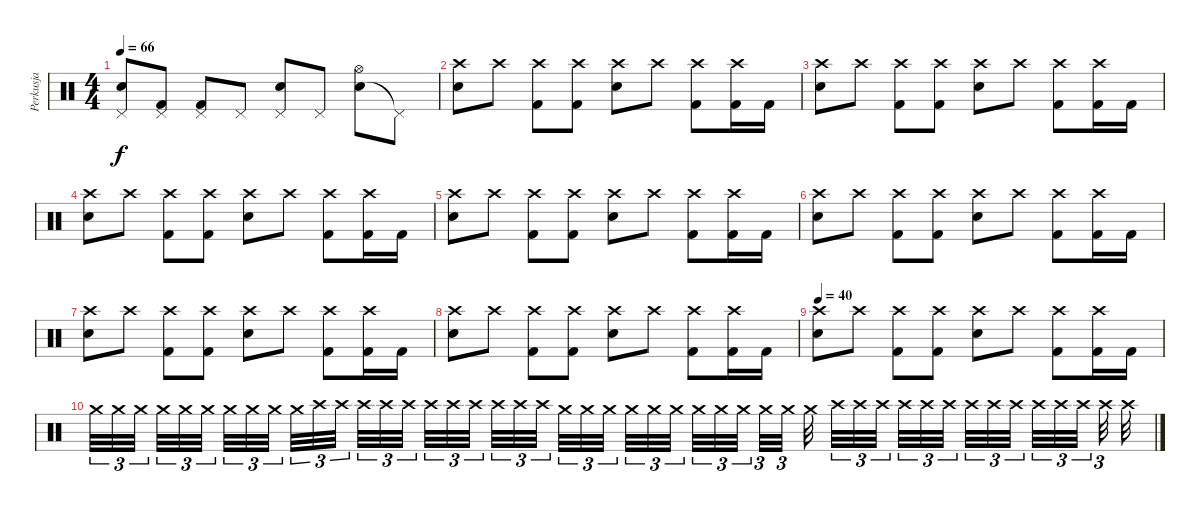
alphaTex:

\track ("Perkusja" "Perkusja") {instrument percussion}
\staff {score}
\articulation defaults
\ts (4 4)
\tempo 66
\clef neutral
\ks c
("Snare (hit) 2" "Pedal Hi-Hat (hit)").8{dy f} ("Kick (hit) 2" "Pedal Hi-Hat (hit)").8 ("Kick (hit) 2" "Pedal Hi-Hat (hit)").8 "Pedal Hi-Hat (hit)".8 ("Snare (hit) 2" "Pedal Hi-Hat (hit)").8 "Pedal Hi-Hat (hit)".8 ("Snare (hit) 2" "Hi-Hat (open)").8 "Pedal Hi-Hat (hit)"{t}.8 |
("Snare (hit) 2" "Crash high (hit)").8 "Crash high (hit)".8 ("Kick (hit) 2" "Crash high (hit)").8 ("Kick (hit) 2" "Crash high (hit)").8 ("Snare (hit) 2" "Crash high (hit)").8 "Crash high (hit)".8 ("Kick (hit) 2" "Crash high (hit)").8 ("Kick (hit) 2" "Crash high (hit)").16 "Kick (hit) 2".16 |
("Snare (hit) 2" "Crash high (hit)").8 "Crash high (hit)".8 ("Kick (hit) 2" "Crash high (hit)").8 ("Kick (hit) 2" "Crash high (hit)").8 ("Snare (hit) 2" "Crash high (hit)").8 "Crash high (hit)".8 ("Kick (hit) 2" "Crash high (hit)").8 ("Kick (hit) 2" "Crash high (hit)").16 "Kick (hit) 2".16 |
("Snare (hit) 2" "Crash high (hit)").8 "Crash high (hit)".8 ("Kick (hit) 2" "Crash high (hit)").8 ("Kick (hit) 2" "Crash high (hit)").8 ("Snare (hit) 2" "Crash high (hit)").8 "Crash high (hit)".8 ("Kick (hit) 2" "Crash high (hit)").8 ("Kick (hit) 2" "Crash high (hit)").16 "Kick (hit) 2".16 |
("Snare (hit) 2" "Crash high (hit)").8 "Crash high (hit)".8 ("Kick (hit) 2" "Crash high (hit)").8 ("Kick (hit) 2" "Crash high (hit)").8 ("Snare (hit) 2" "Crash high (hit)").8 "Crash high (hit)".8 ("Kick (hit) 2" "Crash high (hit)").8 ("Kick (hit) 2" "Crash high (hit)").16 "Kick (hit) 2".16 |
("Snare (hit) 2" "Crash high (hit)").8 "Crash high (hit)".8 ("Kick (hit) 2" "Crash high (hit)").8 ("Kick (hit) 2" "Crash high (hit)").8 ("Snare (hit) 2" "Crash high (hit)").8 "Crash high (hit)".8 ("Kick (hit) 2" "Crash high (hit)").8 ("Kick (hit) 2" "Crash high (hit)").16 "Kick (hit) 2".16 |
("Snare (hit) 2" "Crash high (hit)").8 "Crash high (hit)".8 ("Kick (hit) 2" "Crash high (hit)").8 ("Kick (hit) 2" "Crash high (hit)").8 ("Snare (hit) 2" "Crash high (hit)").8 "Crash high (hit)".8 ("Kick (hit) 2" "Crash high (hit)").8 ("Kick (hit) 2" "Crash high (hit)").16 "Kick (hit) 2".16 |
("Snare (hit) 2" "Crash high (hit)").8 "Crash high (hit)".8 ("Kick (hit) 2" "Crash high (hit)").8 ("Kick (hit) 2" "Crash high (hit)").8 ("Snare (hit) 2" "Crash high (hit)").8 "Crash high (hit)".8 ("Kick (hit) 2" "Crash high (hit)").8 ("Kick (hit) 2" "Crash high (hit)").16 "Kick (hit) 2".16 |
\tempo 40
("Snare (hit) 2" "Crash high (hit)").8 "Crash high (hit)".8 ("Kick (hit) 2" "Crash high (hit)").8 ("Kick (hit) 2" "Crash high (hit)").8 ("Snare (hit) 2" "Crash high (hit)").8 "Crash high (hit)".8 ("Kick (hit) 2" "Crash high (hit)").8 ("Kick (hit) 2" "Crash high (hit)").16 "Kick (hit) 2".16 |
"Crash medium (hit)".32{tu (3 2)} "Crash medium (hit)".32{tu (3 2)} "Crash medium (hit)".32{tu (3 2)} "Crash medium (hit)".32{tu (3 2)} "Crash medium (hit)".32{tu (3 2)} "Crash medium (hit)".32{tu (3 2)} "Crash medium (hit)".32{tu (3 2)} "Crash medium (hit)".32{tu (3 2)} "Crash medium (hit)".32{tu (3 2)} "Crash medium (hit)".32{tu (3 2)} "Crash high (hit)".32{tu (3 2)} "Crash high (hit)".32{tu (3 2)} "Crash high (hit)".32{tu (3 2)} "Crash high (hit)".32{tu (3 2)} "Crash high (hit)".32{tu (3 2)} "Crash high (hit)".32{tu (3 2)} "Crash high (hit)".32{tu (3 2)} "Crash high (hit)".32{tu (3 2)} "Crash high (hit)".32{tu (3 2)} "Crash high (hit)".32{tu (3 2)} "Crash high (hit)".32{tu (3 2)} "Crash medium (hit)".32{tu (3 2)} "Crash medium (hit)".32{tu (3 2)} "Crash medium (hit)".32{tu (3 2)} "Crash medium (hit)".32{tu (3 2)} "Crash medium (hit)".32{tu (3 2)} "Crash medium (hit)".32{tu (3 2)} "Crash medium (hit)".32{tu (3 2)} "Crash medium (hit)".32{tu (3 2)} "Crash medium (hit)".32{tu (3 2)} "Crash medium (hit)".32{tu (3 2)} "Crash medium (hit)".32{tu (3 2)} "Crash medium (hit)".32 "Crash high (hit)".32{tu (3 2)} "Crash high (hit)".32{tu (3 2)} "Crash high (hit)".32{tu (3 2)} "Crash high (hit)".32{tu (3 2)} "Crash high (hit)".32{tu (3 2)} "Crash high (hit)".32{tu (3 2)} "Crash high (hit)".32{tu (3 2)} "Crash high (hit)".32{tu (3 2)} "Crash high (hit)".32{tu (3 2)} "Crash high (hit)".32{tu (3 2)} "Crash high (hit)".32{tu (3 2)} "Crash high (hit)".32{tu (3 2)} "Crash high (hit)".32{tu (3 2)} "Crash high (hit)".32
